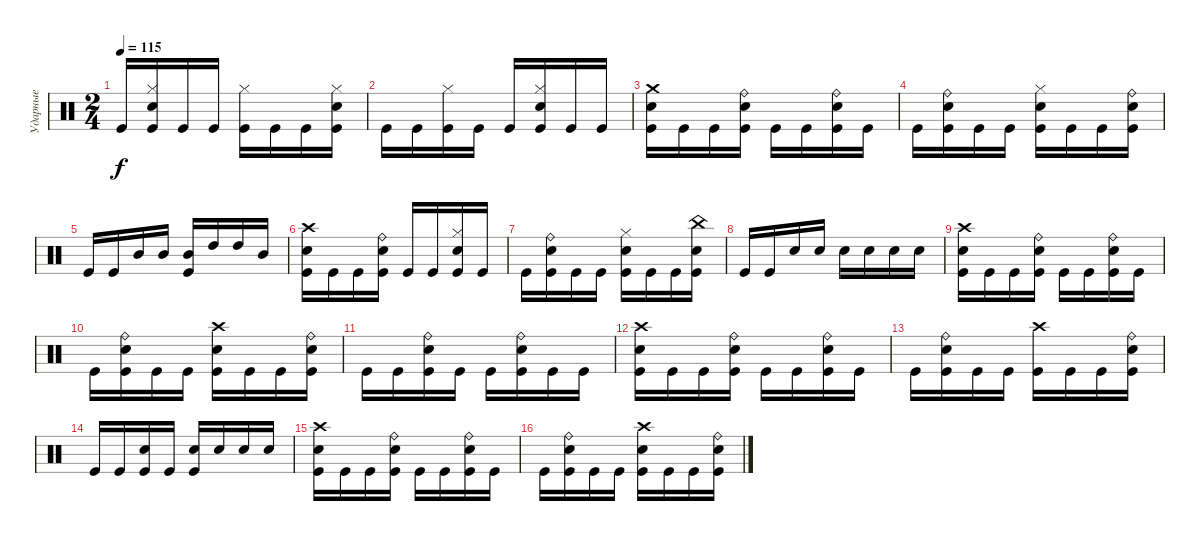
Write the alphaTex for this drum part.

\track ("Ударные" "Ударные") {instrument percussion}
\staff {score}
\articulation defaults
\ts (2 4)
\tempo 115
\clef neutral
\ks c "Kick (hit)".16{dy f}
("Hi-Hat (closed)" "Electric Snare (hit)" "Kick (hit)").16 "Kick (hit)".16 "Kick (hit)".16 ("Hi-Hat (closed)" "Kick (hit)").16 "Kick (hit)".16 "Kick (hit)".16 ("Hi-Hat (closed)" "Electric Snare (hit)" "Kick (hit)").16 |
"Kick (hit)".16 "Kick (hit)".16 ("Hi-Hat (closed)" "Kick (hit)").16 "Kick (hit)".16 "Kick (hit)".16 ("Hi-Hat (closed)" "Electric Snare (hit)" "Kick (hit)").16 "Kick (hit)".16 "Kick (hit)".16 |
("Crash medium (hit)" "Electric Snare (hit)" "Kick (hit)").16 "Kick (hit)".16 "Kick (hit)".16 ("Ride (bell)" "Electric Snare (hit)" "Kick (hit)").16 "Kick (hit)".16 "Kick (hit)".16 ("Ride (bell)" "Electric Snare (hit)" "Kick (hit)").16 "Kick (hit)".16 |
"Kick (hit)".16 ("Ride (bell)" "Electric Snare (hit)" "Kick (hit)").16 "Kick (hit)".16 "Kick (hit)".16 ("Hi-Hat (closed)" "Electric Snare (hit)" "Kick (hit)").16 "Kick (hit)".16 "Kick (hit)".16 ("Ride (bell)" "Electric Snare (hit)" "Kick (hit)").16 |
"Kick (hit)".16 "Kick (hit)".16 "Mid Tom (hit)".16 "Mid Tom (hit)".16 ("Mid Tom (hit)" "Kick (hit)").16 "High Tom (hit)".16 "High Tom (hit)".16 "Mid Tom (hit)".16 |
("Crash high (hit)" "Electric Snare (hit)" "Kick (hit)").16 "Kick (hit)".16 "Kick (hit)".16 ("Ride (bell)" "Electric Snare (hit)" "Kick (hit)").16 "Kick (hit)".16 "Kick (hit)".16 ("Hi-Hat (closed)" "Electric Snare (hit)" "Kick (hit)").16 "Kick (hit)".16 |
"Kick (hit)".16 ("Ride (bell)" "Electric Snare (hit)" "Kick (hit)").16 "Kick (hit)".16 "Kick (hit)".16 ("Hi-Hat (closed)" "Electric Snare (hit)" "Kick (hit)").16 "Kick (hit)".16 "Kick (hit)".16 ("China (hit)" "Electric Snare (hit)" "Kick (hit)").16 |
"Kick (hit)".16 "Kick (hit)".16 "Electric Snare (hit)".16 "Electric Snare (hit)".16 "Electric Snare (hit)".16 "Electric Snare (hit)".16 "Electric Snare (hit)".16 "Electric Snare (hit)".16 |
("Crash high (hit)" "Electric Snare (hit)" "Kick (hit)").16 "Kick (hit)".16 "Kick (hit)".16 ("Ride (bell)" "Electric Snare (hit)" "Kick (hit)").16 "Kick (hit)".16 "Kick (hit)".16 ("Ride (bell)" "Electric Snare (hit)" "Kick (hit)").16 "Kick (hit)".16 |
"Kick (hit)".16 ("Ride (bell)" "Electric Snare (hit)" "Kick (hit)").16 "Kick (hit)".16 "Kick (hit)".16 ("Crash high (hit)" "Electric Snare (hit)" "Kick (hit)").16 "Kick (hit)".16 "Kick (hit)".16 ("Ride (bell)" "Electric Snare (hit)" "Kick (hit)").16 |
"Kick (hit)".16 "Kick (hit)".16 ("Ride (bell)" "Electric Snare (hit)" "Kick (hit)").16 "Kick (hit)".16 "Kick (hit)".16 ("Ride (bell)" "Electric Snare (hit)" "Kick (hit)").16 "Kick (hit)".16 "Kick (hit)".16 |
("Crash high (hit)" "Electric Snare (hit)" "Kick (hit)").16 "Kick (hit)".16 "Kick (hit)".16 ("Ride (bell)" "Electric Snare (hit)" "Kick (hit)").16 "Kick (hit)".16 "Kick (hit)".16 ("Ride (bell)" "Electric Snare (hit)" "Kick (hit)").16 "Kick (hit)".16 |
"Kick (hit)".16 ("Ride (bell)" "Electric Snare (hit)" "Kick (hit)").16 "Kick (hit)".16 "Kick (hit)".16 ("Crash high (hit)" "Kick (hit)").16 "Kick (hit)".16 "Kick (hit)".16 ("Ride (bell)" "Electric Snare (hit)" "Kick (hit)").16 |
"Kick (hit)".16 "Kick (hit)".16 ("Electric Snare (hit)" "Kick (hit)").16 "Kick (hit)".16 ("Electric Snare (hit)" "Kick (hit)").16 "Electric Snare (hit)".16 "Electric Snare (hit)".16 "Electric Snare (hit)".16 |
("Crash high (hit)" "Electric Snare (hit)" "Kick (hit)").16 "Kick (hit)".16 "Kick (hit)".16 ("Ride (bell)" "Electric Snare (hit)" "Kick (hit)").16 "Kick (hit)".16 "Kick (hit)".16 ("Ride (bell)" "Electric Snare (hit)" "Kick (hit)").16 "Kick (hit)".16 |
"Kick (hit)".16 ("Ride (bell)" "Electric Snare (hit)" "Kick (hit)").16 "Kick (hit)".16 "Kick (hit)".16 ("Crash high (hit)" "Electric Snare (hit)" "Kick (hit)").16 "Kick (hit)".16 "Kick (hit)".16 ("Ride (bell)" "Electric Snare (hit)" "Kick (hit)").16
